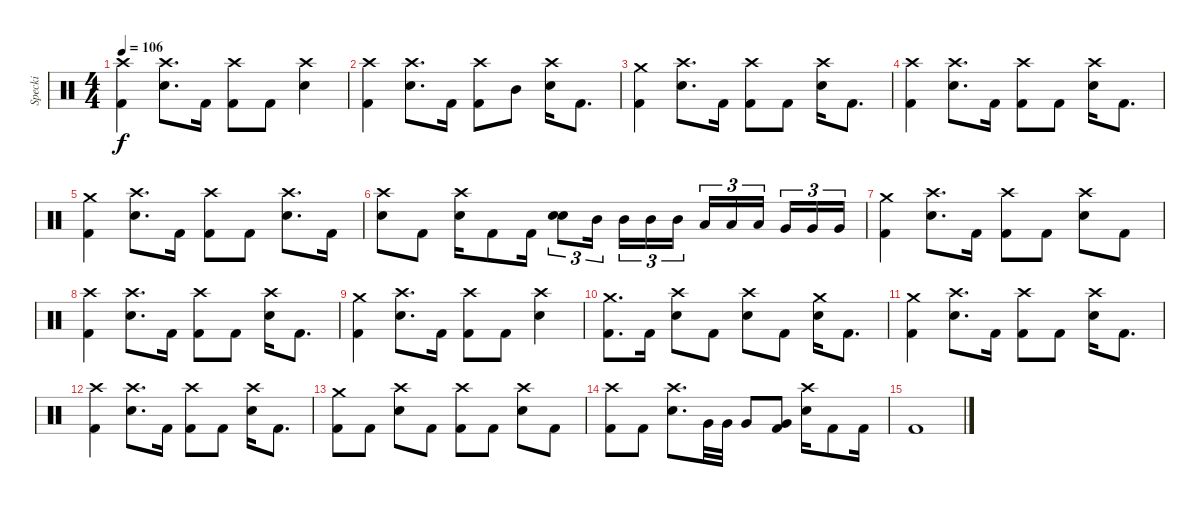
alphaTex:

\track ("Specki" "Specki") {instrument percussion}
\staff {score}
\articulation defaults
\ts (4 4)
\tempo 106
\clef neutral
\ks c
("Crash high (hit)" "Kick (hit) 2").4{dy f} ("Crash high (hit)" "Snare (hit) 2").8{d} "Kick (hit) 2".16 ("Crash high (hit)" "Kick (hit) 2").8 "Kick (hit) 2".8 ("Crash high (hit)" "Snare (hit) 2").4 |
("Crash high (hit)" "Kick (hit) 2").4 ("Crash high (hit)" "Snare (hit) 2").8{d} "Kick (hit) 2".16 ("Crash high (hit)" "Kick (hit) 2").8 "Mid Tom (hit)".8 ("Crash high (hit)" "Snare (hit) 2").16 "Kick (hit) 2".8{d} |
("Crash medium (hit)" "Kick (hit) 2").4 ("Crash high (hit)" "Snare (hit) 2").8{d} "Kick (hit) 2".16 ("Crash high (hit)" "Kick (hit) 2").8 "Kick (hit) 2".8 ("Crash high (hit)" "Snare (hit) 2").16 "Kick (hit) 2".8{d} |
("Crash high (hit)" "Kick (hit) 2").4 ("Crash high (hit)" "Snare (hit) 2").8{d} "Kick (hit) 2".16 ("Crash high (hit)" "Kick (hit) 2").8 "Kick (hit) 2".8 ("Crash high (hit)" "Snare (hit) 2").16 "Kick (hit) 2".8{d} |
("Crash medium (hit)" "Kick (hit) 2").4 ("Crash high (hit)" "Snare (hit) 2").8{d} "Kick (hit) 2".16 ("Crash high (hit)" "Kick (hit) 2").8 "Kick (hit) 2".8 ("Crash high (hit)" "Snare (hit) 2").8{d} "Kick (hit) 2".16 |
("Crash high (hit)" "Snare (hit) 2").8 "Kick (hit) 2".8 ("Crash high (hit)" "Snare (hit) 2").16 "Kick (hit) 2".8 "Kick (hit) 2".16 ("Snare (hit) 2" "Snare (hit) 2").8{tu (3 2)} "Mid Tom (hit)".16{tu (3 2) beam splitsecondary} "Mid Tom (hit)".16{tu (3 2)} "Mid Tom (hit)".16{tu (3 2)} "Mid Tom (hit)".16{tu (3 2)} "Low Tom (hit)".16{tu (3 2)} "Low Tom (hit)".16{tu (3 2)} "Low Tom (hit)".16{tu (3 2) beam splitsecondary} "Very Low Tom (hit)".16{tu (3 2)} "Very Low Tom (hit)".16{tu (3 2)} "Very Low Tom (hit)".16{tu (3 2)} |
("Crash medium (hit)" "Kick (hit) 2").4 ("Crash high (hit)" "Snare (hit) 2").8{d} "Kick (hit) 2".16 ("Crash high (hit)" "Kick (hit) 2").8 "Kick (hit) 2".8 ("Crash high (hit)" "Snare (hit) 2").8 "Kick (hit) 2".8 |
("Crash high (hit)" "Kick (hit) 2").4 ("Crash high (hit)" "Snare (hit) 2").8{d} "Kick (hit) 2".16 ("Crash high (hit)" "Kick (hit) 2").8 "Kick (hit) 2".8 ("Crash high (hit)" "Snare (hit) 2").16 "Kick (hit) 2".8{d} |
("Crash medium (hit)" "Kick (hit) 2").4 ("Crash high (hit)" "Snare (hit) 2").8{d} "Kick (hit) 2".16 ("Crash high (hit)" "Kick (hit) 2").8 "Kick (hit) 2".8 ("Crash high (hit)" "Snare (hit) 2").4 |
("Crash medium (hit)" "Kick (hit) 2").8{d} "Kick (hit) 2".16 ("Crash high (hit)" "Snare (hit) 2").8 "Kick (hit) 2".8 ("Crash high (hit)" "Snare (hit) 2").8 "Kick (hit) 2".8 ("Crash medium (hit)" "Snare (hit) 2").16 "Kick (hit) 2".8{d} |
("Crash medium (hit)" "Kick (hit) 2").4 ("Crash high (hit)" "Snare (hit) 2").8{d} "Kick (hit) 2".16 ("Crash high (hit)" "Kick (hit) 2").8 "Kick (hit) 2".8 ("Crash high (hit)" "Snare (hit) 2").16 "Kick (hit) 2".8{d} |
("Crash high (hit)" "Kick (hit) 2").4 ("Crash high (hit)" "Snare (hit) 2").8{d} "Kick (hit) 2".16 ("Crash high (hit)" "Kick (hit) 2").8 "Kick (hit) 2".8 ("Crash high (hit)" "Snare (hit) 2").16 "Kick (hit) 2".8{d} |
("Crash medium (hit)" "Kick (hit) 2").8 "Kick (hit) 2".8 ("Crash high (hit)" "Snare (hit) 2").8 "Kick (hit) 2".8 ("Crash high (hit)" "Kick (hit) 2").8 "Kick (hit) 2".8 ("Crash high (hit)" "Snare (hit) 2").8 "Kick (hit) 2".8 |
("Crash high (hit)" "Kick (hit) 2").8 "Kick (hit) 2".8 ("Crash high (hit)" "Snare (hit) 2").8{d} "Very Low Tom (hit)".32 "Very Low Tom (hit)".32 "Very Low Tom (hit)".8 ("Very Low Tom (hit)" "Kick (hit) 2").8 ("Crash high (hit)" "Snare (hit) 2").16 "Kick (hit) 2".8 "Kick (hit) 2".16 |
"Kick (hit) 2".1
